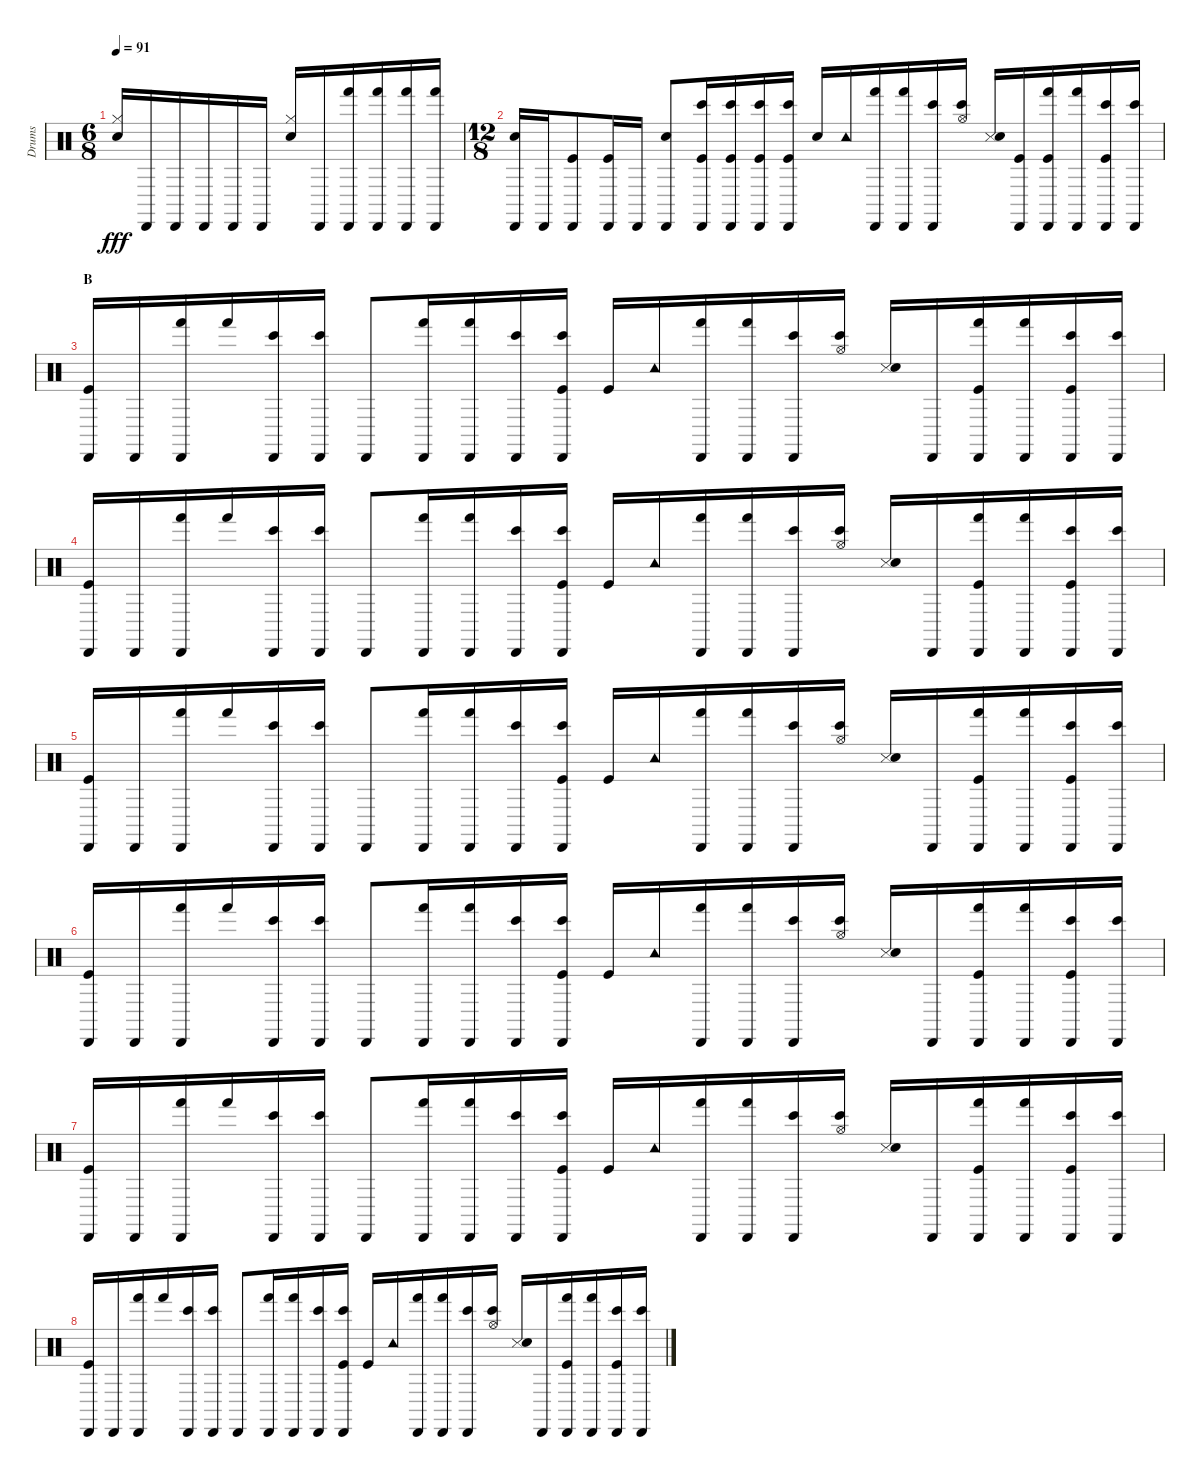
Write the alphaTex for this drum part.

\track ("Drums" "Drums") {instrument percussion}
\staff {score}
\articulation defaults
\ts (6 8)
\tempo 91
\clef neutral
\ks c
("Hi-Hat (closed)" "Snare (hit) 2").16{dy fff} "Cabasa (hit)".16 "Cabasa (hit)".16 "Cabasa (hit)".16 "Cabasa (hit)".16 "Cabasa (hit)".16 ("Hi-Hat (closed)" "Snare (hit) 2").16 "Cabasa (hit)".16 ("Cabasa (hit)" "Hand (hit)").16 ("Cabasa (hit)" "Hand (hit)").16 ("Cabasa (hit)" "Hand (hit)").16 ("Cabasa (hit)" "Hand (hit)").16 |
\ts (12 8)
("Cabasa (hit)" "Snare (hit) 2").16 "Cabasa (hit)".16 ("Cabasa (hit)" "Kick (hit)").8 ("Cabasa (hit)" "Kick (hit)").16 "Cabasa (hit)".16 ("Cabasa (hit)" "Snare (hit) 2").8 ("Cabasa (hit)" "Bongo High (hit)" "Kick (hit)").16 ("Cabasa (hit)" "Bongo High (hit)" "Kick (hit)").16 ("Cabasa (hit)" "Bongo High (hit)" "Kick (hit)").16 ("Cabasa (hit)" "Bongo High (hit)" "Kick (hit)").16 "Snare (hit) 2".16 "Tambourine (hit)".16 ("Cabasa (hit)" "Hand (hit)").16 ("Cabasa (hit)" "Hand (hit)").16 ("Cabasa (hit)" "Bongo High (hit)").16 ("Hi-Hat (open)" "Bongo High (hit)").16 ("Snare (side stick) 3" "Electric Snare (hit)").16 ("Cabasa (hit)" "Kick (hit)").16 ("Cabasa (hit)" "Hand (hit)" "Kick (hit)").16 ("Cabasa (hit)" "Hand (hit)").16 ("Cabasa (hit)" "Bongo High (hit)" "Kick (hit)").16 ("Cabasa (hit)" "Bongo High (hit)").16 |
\section ("" "B")
("Cabasa (hit)" "Kick (hit)").16 "Cabasa (hit)".16 ("Cabasa (hit)" "Hand (hit)").16 "Hand (hit)".16 ("Cabasa (hit)" "Bongo High (hit)").16 ("Cabasa (hit)" "Bongo High (hit)").16 "Cabasa (hit)".8 ("Cabasa (hit)" "Hand (hit)").16 ("Cabasa (hit)" "Hand (hit)").16 ("Cabasa (hit)" "Bongo High (hit)").16 ("Cabasa (hit)" "Bongo High (hit)" "Kick (hit)").16 "Kick (hit)".16 "Tambourine (hit)".16 ("Cabasa (hit)" "Hand (hit)").16 ("Cabasa (hit)" "Hand (hit)").16 ("Cabasa (hit)" "Bongo High (hit)").16 ("Hi-Hat (open)" "Bongo High (hit)").16 ("Snare (side stick) 3" "Electric Snare (hit)").16 "Cabasa (hit)".16 ("Cabasa (hit)" "Hand (hit)" "Kick (hit)").16 ("Cabasa (hit)" "Hand (hit)").16 ("Cabasa (hit)" "Bongo High (hit)" "Kick (hit)").16 ("Cabasa (hit)" "Bongo High (hit)").16 |
("Cabasa (hit)" "Kick (hit)").16 "Cabasa (hit)".16 ("Cabasa (hit)" "Hand (hit)").16 "Hand (hit)".16 ("Cabasa (hit)" "Bongo High (hit)").16 ("Cabasa (hit)" "Bongo High (hit)").16 "Cabasa (hit)".8 ("Cabasa (hit)" "Hand (hit)").16 ("Cabasa (hit)" "Hand (hit)").16 ("Cabasa (hit)" "Bongo High (hit)").16 ("Cabasa (hit)" "Bongo High (hit)" "Kick (hit)").16 "Kick (hit)".16 "Tambourine (hit)".16 ("Cabasa (hit)" "Hand (hit)").16 ("Cabasa (hit)" "Hand (hit)").16 ("Cabasa (hit)" "Bongo High (hit)").16 ("Hi-Hat (open)" "Bongo High (hit)").16 ("Snare (side stick) 3" "Electric Snare (hit)").16 "Cabasa (hit)".16 ("Cabasa (hit)" "Hand (hit)" "Kick (hit)").16 ("Cabasa (hit)" "Hand (hit)").16 ("Cabasa (hit)" "Bongo High (hit)" "Kick (hit)").16 ("Cabasa (hit)" "Bongo High (hit)").16 |
("Cabasa (hit)" "Kick (hit)").16 "Cabasa (hit)".16 ("Cabasa (hit)" "Hand (hit)").16 "Hand (hit)".16 ("Cabasa (hit)" "Bongo High (hit)").16 ("Cabasa (hit)" "Bongo High (hit)").16 "Cabasa (hit)".8 ("Cabasa (hit)" "Hand (hit)").16 ("Cabasa (hit)" "Hand (hit)").16 ("Cabasa (hit)" "Bongo High (hit)").16 ("Cabasa (hit)" "Bongo High (hit)" "Kick (hit)").16 "Kick (hit)".16 "Tambourine (hit)".16 ("Cabasa (hit)" "Hand (hit)").16 ("Cabasa (hit)" "Hand (hit)").16 ("Cabasa (hit)" "Bongo High (hit)").16 ("Hi-Hat (open)" "Bongo High (hit)").16 ("Snare (side stick) 3" "Electric Snare (hit)").16 "Cabasa (hit)".16 ("Cabasa (hit)" "Hand (hit)" "Kick (hit)").16 ("Cabasa (hit)" "Hand (hit)").16 ("Cabasa (hit)" "Bongo High (hit)" "Kick (hit)").16 ("Cabasa (hit)" "Bongo High (hit)").16 |
("Cabasa (hit)" "Kick (hit)").16 "Cabasa (hit)".16 ("Cabasa (hit)" "Hand (hit)").16 "Hand (hit)".16 ("Cabasa (hit)" "Bongo High (hit)").16 ("Cabasa (hit)" "Bongo High (hit)").16 "Cabasa (hit)".8 ("Cabasa (hit)" "Hand (hit)").16 ("Cabasa (hit)" "Hand (hit)").16 ("Cabasa (hit)" "Bongo High (hit)").16 ("Cabasa (hit)" "Bongo High (hit)" "Kick (hit)").16 "Kick (hit)".16 "Tambourine (hit)".16 ("Cabasa (hit)" "Hand (hit)").16 ("Cabasa (hit)" "Hand (hit)").16 ("Cabasa (hit)" "Bongo High (hit)").16 ("Hi-Hat (open)" "Bongo High (hit)").16 ("Snare (side stick) 3" "Electric Snare (hit)").16 "Cabasa (hit)".16 ("Cabasa (hit)" "Hand (hit)" "Kick (hit)").16 ("Cabasa (hit)" "Hand (hit)").16 ("Cabasa (hit)" "Bongo High (hit)" "Kick (hit)").16 ("Cabasa (hit)" "Bongo High (hit)").16 |
("Cabasa (hit)" "Kick (hit)").16 "Cabasa (hit)".16 ("Cabasa (hit)" "Hand (hit)").16 "Hand (hit)".16 ("Cabasa (hit)" "Bongo High (hit)").16 ("Cabasa (hit)" "Bongo High (hit)").16 "Cabasa (hit)".8 ("Cabasa (hit)" "Hand (hit)").16 ("Cabasa (hit)" "Hand (hit)").16 ("Cabasa (hit)" "Bongo High (hit)").16 ("Cabasa (hit)" "Bongo High (hit)" "Kick (hit)").16 "Kick (hit)".16 "Tambourine (hit)".16 ("Cabasa (hit)" "Hand (hit)").16 ("Cabasa (hit)" "Hand (hit)").16 ("Cabasa (hit)" "Bongo High (hit)").16 ("Hi-Hat (open)" "Bongo High (hit)").16 ("Snare (side stick) 3" "Electric Snare (hit)").16 "Cabasa (hit)".16 ("Cabasa (hit)" "Hand (hit)" "Kick (hit)").16 ("Cabasa (hit)" "Hand (hit)").16 ("Cabasa (hit)" "Bongo High (hit)" "Kick (hit)").16 ("Cabasa (hit)" "Bongo High (hit)").16 |
("Cabasa (hit)" "Kick (hit)").16 "Cabasa (hit)".16 ("Cabasa (hit)" "Hand (hit)").16 "Hand (hit)".16 ("Cabasa (hit)" "Bongo High (hit)").16 ("Cabasa (hit)" "Bongo High (hit)").16 "Cabasa (hit)".8 ("Cabasa (hit)" "Hand (hit)").16 ("Cabasa (hit)" "Hand (hit)").16 ("Cabasa (hit)" "Bongo High (hit)").16 ("Cabasa (hit)" "Bongo High (hit)" "Kick (hit)").16 "Kick (hit)".16 "Tambourine (hit)".16 ("Cabasa (hit)" "Hand (hit)").16 ("Cabasa (hit)" "Hand (hit)").16 ("Cabasa (hit)" "Bongo High (hit)").16 ("Hi-Hat (open)" "Bongo High (hit)").16 ("Snare (side stick) 3" "Electric Snare (hit)").16 "Cabasa (hit)".16 ("Cabasa (hit)" "Hand (hit)" "Kick (hit)").16 ("Cabasa (hit)" "Hand (hit)").16 ("Cabasa (hit)" "Bongo High (hit)" "Kick (hit)").16 ("Cabasa (hit)" "Bongo High (hit)").16
